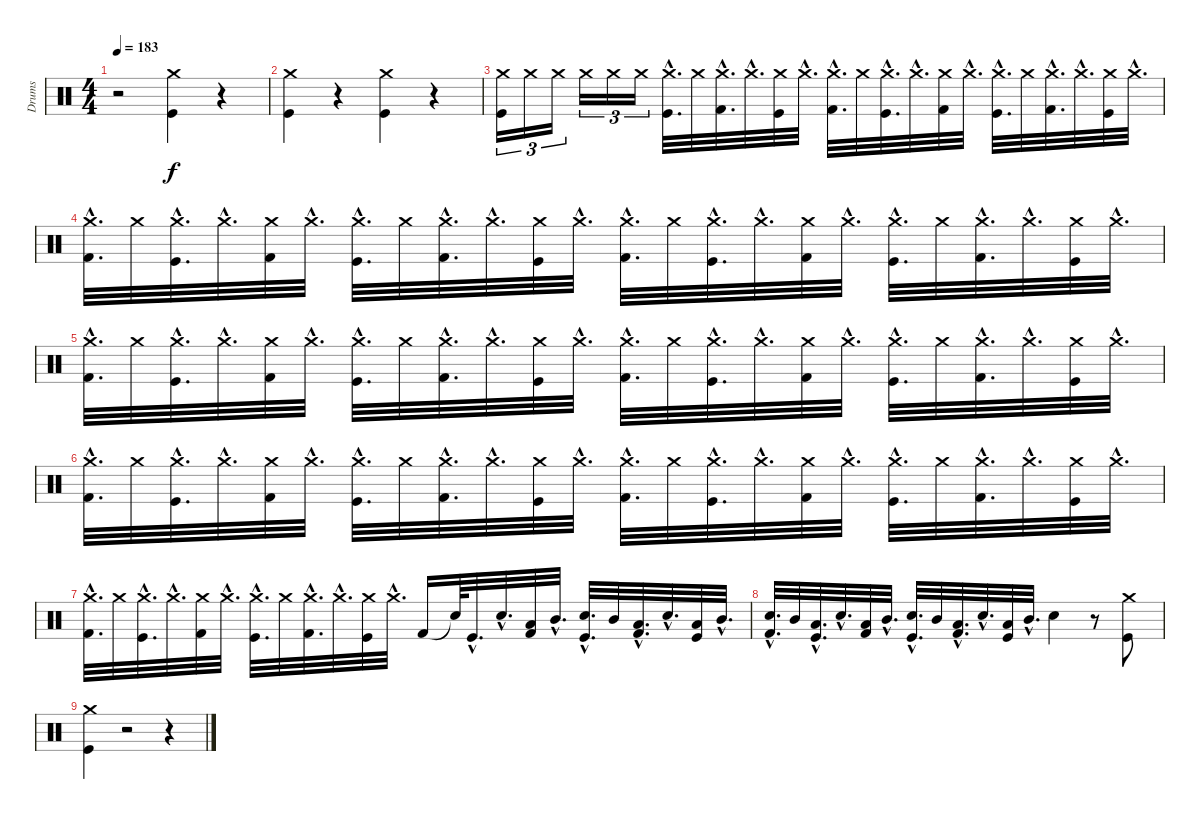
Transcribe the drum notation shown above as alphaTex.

\track ("Drums" "Drums") {instrument percussion}
\staff {score}
\articulation defaults
\ts (4 4)
\tempo 183
\clef neutral
\ks c
r.2{dy f} ("Kick (hit)" "Crash medium (hit)").4 r.4 |
("Crash medium (hit)" "Kick (hit)").4 r.4 ("Kick (hit)" "Crash medium (hit)").4 r.4 |
("Kick (hit)" "Crash medium (hit)").16{tu (3 2)} "Crash medium (hit)".16{tu (3 2)} "Crash medium (hit)".16{tu (3 2)} "Crash medium (hit)".16{tu (3 2)} "Crash medium (hit)".16{tu (3 2)} "Crash medium (hit)".16{tu (3 2)} ("Kick (hit)"{hac} "Crash medium (hit)"{hac}).32{d} "Crash medium (hit)".32 ("Kick (hit) 2"{hac} "Crash medium (hit)"{hac}).32{d} "Crash medium (hit)"{hac}.32{d} ("Kick (hit)" "Crash medium (hit)").32 "Crash medium (hit)"{hac}.32{d} ("Kick (hit) 2"{hac} "Crash medium (hit)"{hac}).32{d} "Crash medium (hit)".32 ("Kick (hit)"{hac} "Crash medium (hit)"{hac}).32{d} "Crash medium (hit)"{hac}.32{d} ("Kick (hit) 2" "Crash medium (hit)").32 "Crash medium (hit)"{hac}.32{d} ("Kick (hit)"{hac} "Crash medium (hit)"{hac}).32{d} "Crash medium (hit)".32 ("Kick (hit) 2"{hac} "Crash medium (hit)"{hac}).32{d} "Crash medium (hit)"{hac}.32{d} ("Kick (hit)" "Crash medium (hit)").32 "Crash medium (hit)"{hac}.32{d} |
("Kick (hit) 2"{hac} "Crash medium (hit)"{hac}).32{d} "Crash medium (hit)".32 ("Kick (hit)"{hac} "Crash medium (hit)"{hac}).32{d} "Crash medium (hit)"{hac}.32{d} ("Kick (hit) 2" "Crash medium (hit)").32 "Crash medium (hit)"{hac}.32{d} ("Kick (hit)"{hac} "Crash medium (hit)"{hac}).32{d} "Crash medium (hit)".32 ("Kick (hit) 2"{hac} "Crash medium (hit)"{hac}).32{d} "Crash medium (hit)"{hac}.32{d} ("Kick (hit)" "Crash medium (hit)").32 "Crash medium (hit)"{hac}.32{d} ("Kick (hit) 2"{hac} "Crash medium (hit)"{hac}).32{d} "Crash medium (hit)".32 ("Kick (hit)"{hac} "Crash medium (hit)"{hac}).32{d} "Crash medium (hit)"{hac}.32{d} ("Kick (hit) 2" "Crash medium (hit)").32 "Crash medium (hit)"{hac}.32{d} ("Kick (hit)"{hac} "Crash medium (hit)"{hac}).32{d} "Crash medium (hit)".32 ("Kick (hit) 2"{hac} "Crash medium (hit)"{hac}).32{d} "Crash medium (hit)"{hac}.32{d} ("Kick (hit)" "Crash medium (hit)").32 "Crash medium (hit)"{hac}.32{d} |
("Kick (hit) 2"{hac} "Crash medium (hit)"{hac}).32{d} "Crash medium (hit)".32 ("Kick (hit)"{hac} "Crash medium (hit)"{hac}).32{d} "Crash medium (hit)"{hac}.32{d} ("Kick (hit) 2" "Crash medium (hit)").32 "Crash medium (hit)"{hac}.32{d} ("Kick (hit)"{hac} "Crash medium (hit)"{hac}).32{d} "Crash medium (hit)".32 ("Kick (hit) 2"{hac} "Crash medium (hit)"{hac}).32{d} "Crash medium (hit)"{hac}.32{d} ("Kick (hit)" "Crash medium (hit)").32 "Crash medium (hit)"{hac}.32{d} ("Kick (hit) 2"{hac} "Crash medium (hit)"{hac}).32{d} "Crash medium (hit)".32 ("Kick (hit)"{hac} "Crash medium (hit)"{hac}).32{d} "Crash medium (hit)"{hac}.32{d} ("Kick (hit) 2" "Crash medium (hit)").32 "Crash medium (hit)"{hac}.32{d} ("Kick (hit)"{hac} "Crash medium (hit)"{hac}).32{d} "Crash medium (hit)".32 ("Kick (hit) 2"{hac} "Crash medium (hit)"{hac}).32{d} "Crash medium (hit)"{hac}.32{d} ("Kick (hit)" "Crash medium (hit)").32 "Crash medium (hit)"{hac}.32{d} |
("Kick (hit) 2"{hac} "Crash medium (hit)"{hac}).32{d} "Crash medium (hit)".32 ("Kick (hit)"{hac} "Crash medium (hit)"{hac}).32{d} "Crash medium (hit)"{hac}.32{d} ("Kick (hit) 2" "Crash medium (hit)").32 "Crash medium (hit)"{hac}.32{d} ("Kick (hit)"{hac} "Crash medium (hit)"{hac}).32{d} "Crash medium (hit)".32 ("Kick (hit) 2"{hac} "Crash medium (hit)"{hac}).32{d} "Crash medium (hit)"{hac}.32{d} ("Kick (hit)" "Crash medium (hit)").32 "Crash medium (hit)"{hac}.32{d} ("Kick (hit) 2"{hac} "Crash medium (hit)"{hac}).32{d} "Crash medium (hit)".32 ("Kick (hit)"{hac} "Crash medium (hit)"{hac}).32{d} "Crash medium (hit)"{hac}.32{d} ("Kick (hit) 2" "Crash medium (hit)").32 "Crash medium (hit)"{hac}.32{d} ("Kick (hit)"{hac} "Crash medium (hit)"{hac}).32{d} "Crash medium (hit)".32 ("Kick (hit) 2"{hac} "Crash medium (hit)"{hac}).32{d} "Crash medium (hit)"{hac}.32{d} ("Kick (hit)" "Crash medium (hit)").32 "Crash medium (hit)"{hac}.32{d} |
("Kick (hit) 2"{hac} "Crash medium (hit)"{hac}).32{d} "Crash medium (hit)".32 ("Kick (hit)"{hac} "Crash medium (hit)"{hac}).32{d} "Crash medium (hit)"{hac}.32{d} ("Kick (hit) 2" "Crash medium (hit)").32 "Crash medium (hit)"{hac}.32{d} ("Kick (hit)"{hac} "Crash medium (hit)"{hac}).32{d} "Crash medium (hit)".32 ("Kick (hit) 2"{hac} "Crash medium (hit)"{hac}).32{d} "Crash medium (hit)"{hac}.32{d} ("Kick (hit)" "Crash medium (hit)").32 "Crash medium (hit)"{hac}.32{d} "Kick (hit) 2".16 "Snare (hit)"{t}.64 "Kick (hit)"{hac}.32{d} "Snare (hit) 2"{hac}.32{d} ("Low Tom (hit)" "Kick (hit) 2").32 "Mid Tom (hit)"{hac}.32{d} ("Snare (hit) 2"{hac} "Kick (hit)"{hac}).32{d} "Mid Tom (hit)".32 ("Low Tom (hit)"{hac} "Kick (hit) 2"{hac}).32{d} "Snare (hit) 2"{hac}.32{d} ("Low Tom (hit)" "Kick (hit)").32 "Mid Tom (hit)"{hac}.32{d} |
("Snare (hit) 2"{hac} "Kick (hit) 2"{hac}).32{d} "Mid Tom (hit)".32 ("Low Tom (hit)"{hac} "Kick (hit)"{hac}).32{d} "Snare (hit) 2"{hac}.32{d} ("Low Tom (hit)" "Kick (hit) 2").32 "Mid Tom (hit)"{hac}.32{d} ("Snare (hit) 2"{hac} "Kick (hit)"{hac}).32{d} "Mid Tom (hit)".32 ("Low Tom (hit)"{hac} "Kick (hit) 2"{hac}).32{d} "Snare (hit) 2"{hac}.32{d} ("Low Tom (hit)" "Kick (hit)").32 "Mid Tom (hit)"{hac}.32{d} "Snare (hit) 2".4 r.8 ("Kick (hit)" "Crash medium (hit)").8 |
("Kick (hit)" "Crash medium (hit)").4 r.2 r.4
